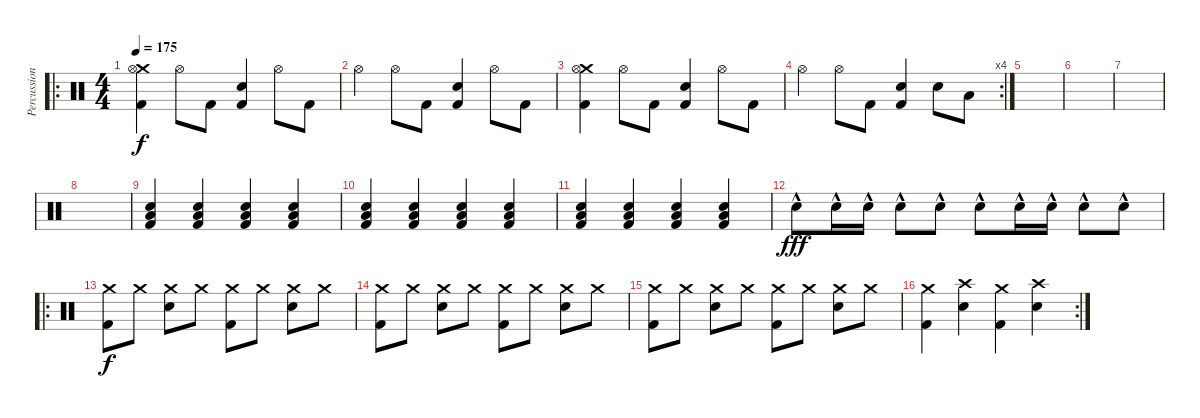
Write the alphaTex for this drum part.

\track ("Percussion" "Percussion") {instrument percussion}
\staff {score}
\articulation defaults
\ro
\ts (4 4)
\tempo 175
\clef neutral
\ks c
("Crash medium (hit)" "Hi-Hat (open)" "Kick (hit) 2").4{dy f} "Hi-Hat (open)".8 "Kick (hit) 2".8 ("Kick (hit) 2" "Snare (hit) 2").4 "Hi-Hat (open)".8 "Kick (hit) 2".8 |
"Hi-Hat (open)".4 "Hi-Hat (open)".8 "Kick (hit) 2".8 ("Kick (hit) 2" "Snare (hit) 2").4 "Hi-Hat (open)".8 "Kick (hit) 2".8 |
("Crash medium (hit)" "Hi-Hat (open)" "Kick (hit) 2").4 "Hi-Hat (open)".8 "Kick (hit) 2".8 ("Kick (hit) 2" "Snare (hit) 2").4 "Hi-Hat (open)".8 "Kick (hit) 2".8 |
\rc 4 "Hi-Hat (open)".4 "Hi-Hat (open)".8 "Kick (hit) 2".8
("Kick (hit) 2" "Snare (hit) 2").4 "Snare (hit) 2".8 "Low Floor Tom (hit)".8 |
|
|
|
|
("Low Tom (hit)" "Snare (hit) 2" "Kick (hit) 2").4 ("Low Tom (hit)" "Snare (hit) 2" "Kick (hit) 2").4 ("Low Tom (hit)" "Snare (hit) 2" "Kick (hit) 2").4 ("Low Tom (hit)" "Snare (hit) 2" "Kick (hit) 2").4 |
("Low Tom (hit)" "Snare (hit) 2" "Kick (hit) 2").4 ("Low Tom (hit)" "Snare (hit) 2" "Kick (hit) 2").4 ("Low Tom (hit)" "Snare (hit) 2" "Kick (hit) 2").4 ("Low Tom (hit)" "Snare (hit) 2" "Kick (hit) 2").4 |
("Low Tom (hit)" "Snare (hit) 2" "Kick (hit) 2").4 ("Low Tom (hit)" "Snare (hit) 2" "Kick (hit) 2").4 ("Low Tom (hit)" "Snare (hit) 2" "Kick (hit) 2").4 ("Low Tom (hit)" "Snare (hit) 2" "Kick (hit) 2").4 |
"Snare (hit) 2"{hac}.8{dy fff} "Snare (hit) 2"{hac}.16 "Snare (hit) 2"{hac}.16 "Snare (hit) 2"{hac}.8 "Snare (hit) 2"{hac}.8 "Snare (hit) 2"{hac}.8 "Snare (hit) 2"{hac}.16 "Snare (hit) 2"{hac}.16 "Snare (hit) 2"{hac}.8 "Snare (hit) 2"{hac}.8 |
\ro
("Crash medium (hit)" "Kick (hit) 2").8{dy f} "Crash medium (hit)".8 ("Crash medium (hit)" "Snare (hit) 2").8 "Crash medium (hit)".8 ("Crash medium (hit)" "Kick (hit) 2").8 "Crash medium (hit)".8 ("Crash medium (hit)" "Snare (hit) 2").8 "Crash medium (hit)".8 |
("Crash medium (hit)" "Kick (hit) 2").8 "Crash medium (hit)".8 ("Crash medium (hit)" "Snare (hit) 2").8 "Crash medium (hit)".8 ("Crash medium (hit)" "Kick (hit) 2").8 "Crash medium (hit)".8 ("Crash medium (hit)" "Snare (hit) 2").8 "Crash medium (hit)".8 |
("Crash medium (hit)" "Kick (hit) 2").8 "Crash medium (hit)".8 ("Crash medium (hit)" "Snare (hit) 2").8 "Crash medium (hit)".8 ("Crash medium (hit)" "Kick (hit) 2").8 "Crash medium (hit)".8 ("Crash medium (hit)" "Snare (hit) 2").8 "Crash medium (hit)".8 |
\rc 2
("Crash medium (hit)" "Kick (hit) 2").4 ("Crash high (hit)" "Snare (hit) 2").4 ("Crash medium (hit)" "Kick (hit) 2").4 ("Crash high (hit)" "Snare (hit) 2").4
